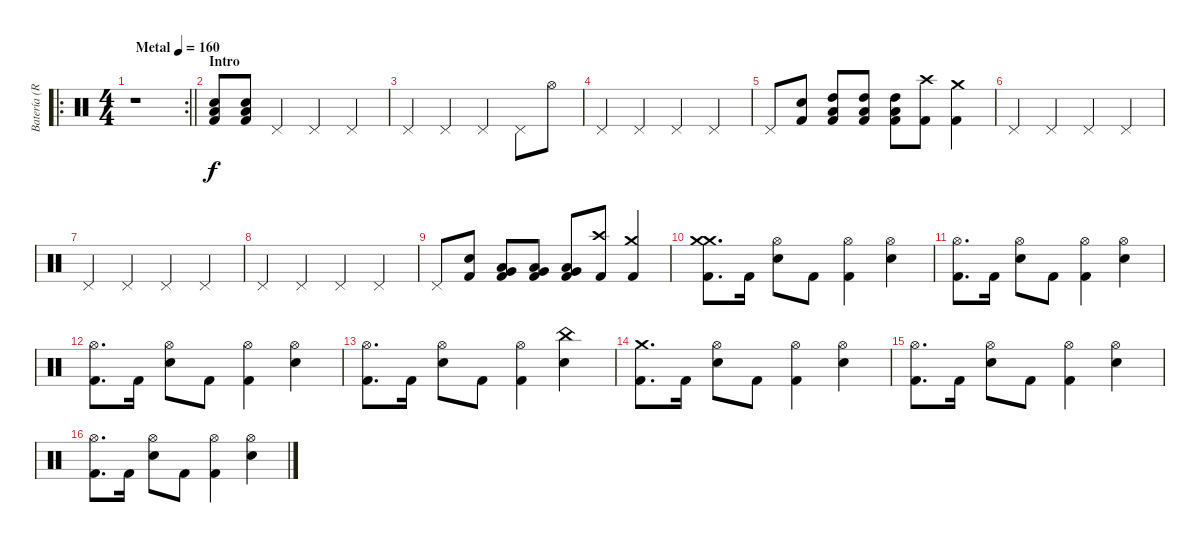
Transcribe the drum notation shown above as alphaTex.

\track ("Batería (Robert)" "Batería (R") {instrument percussion}
\staff {score}
\articulation defaults
\ro
\rc 2
\ts (4 4)
\tempo (160 "Metal")
\clef neutral
\barLineRight lightlight
\ks c
r.1{dy f} |
\section ("" "Intro")
("Kick (hit) 2" "Electric Snare (hit)" "Low Tom (hit)").8 ("Kick (hit) 2" "Electric Snare (hit)" "Low Tom (hit)").8 "Pedal Hi-Hat (hit)".4 "Pedal Hi-Hat (hit)".4 "Pedal Hi-Hat (hit)".4 |
"Pedal Hi-Hat (hit)".4 "Pedal Hi-Hat (hit)".4 "Pedal Hi-Hat (hit)".4 "Pedal Hi-Hat (hit)".8 "Hi-Hat (open)".8 |
"Pedal Hi-Hat (hit)".4 "Pedal Hi-Hat (hit)".4 "Pedal Hi-Hat (hit)".4 "Pedal Hi-Hat (hit)".4 |
"Pedal Hi-Hat (hit)".8 ("Electric Snare (hit)" "Kick (hit) 2").8 ("Kick (hit) 2" "High Tom (hit)" "Low Tom (hit)").8 ("Kick (hit) 2" "High Tom (hit)" "Low Tom (hit)").8 ("Kick (hit) 2" "High Tom (hit)" "Low Tom (hit)").8 ("Kick (hit) 2" "Crash high (hit)").8 ("Kick (hit) 2" "Crash medium (hit)").4 |
"Pedal Hi-Hat (hit)".4 "Pedal Hi-Hat (hit)".4 "Pedal Hi-Hat (hit)".4 "Pedal Hi-Hat (hit)".4 |
"Pedal Hi-Hat (hit)".4 "Pedal Hi-Hat (hit)".4 "Pedal Hi-Hat (hit)".4 "Pedal Hi-Hat (hit)".4 |
"Pedal Hi-Hat (hit)".4 "Pedal Hi-Hat (hit)".4 "Pedal Hi-Hat (hit)".4 "Pedal Hi-Hat (hit)".4 |
"Pedal Hi-Hat (hit)".8 ("Electric Snare (hit)" "Kick (hit) 2").8 ("Kick (hit) 2" "Very Low Tom (hit)" "Low Floor Tom (hit)").8 ("Kick (hit) 2" "Very Low Tom (hit)" "Low Floor Tom (hit)").8 ("Kick (hit) 2" "Very Low Tom (hit)" "Low Floor Tom (hit)").8{beam Up} ("Kick (hit) 2" "Crash high (hit)").8{beam Up} ("Kick (hit) 2" "Crash medium (hit)").4{beam Up} |
("Kick (hit) 2" "Crash medium (hit)" "Crash medium (hit)").8{d} "Kick (hit) 2".16 ("Hi-Hat (open)" "Electric Snare (hit)").8 "Kick (hit) 2".8 ("Kick (hit) 2" "Hi-Hat (open)").4 ("Hi-Hat (open)" "Electric Snare (hit)").4 |
("Kick (hit) 2" "Hi-Hat (open)").8{d} "Kick (hit) 2".16 ("Hi-Hat (open)" "Electric Snare (hit)").8 "Kick (hit) 2".8 ("Kick (hit) 2" "Hi-Hat (open)").4 ("Electric Snare (hit)" "Hi-Hat (open)").4 |
("Kick (hit) 2" "Hi-Hat (open)").8{d} "Kick (hit) 2".16 ("Hi-Hat (open)" "Electric Snare (hit)").8 "Kick (hit) 2".8 ("Kick (hit) 2" "Hi-Hat (open)").4 ("Electric Snare (hit)" "Hi-Hat (open)").4 |
("Kick (hit) 2" "Hi-Hat (open)").8{d} "Kick (hit) 2".16 ("Hi-Hat (open)" "Electric Snare (hit)").8 "Kick (hit) 2".8 ("Kick (hit) 2" "Hi-Hat (open)").4 ("China (hit)" "Electric Snare (hit)").4 |
("Kick (hit) 2" "Crash medium (hit)").8{d} "Kick (hit) 2".16 ("Hi-Hat (open)" "Electric Snare (hit)").8 "Kick (hit) 2".8 ("Kick (hit) 2" "Hi-Hat (open)").4 ("Hi-Hat (open)" "Electric Snare (hit)").4 |
("Kick (hit) 2" "Hi-Hat (open)").8{d} "Kick (hit) 2".16 ("Hi-Hat (open)" "Electric Snare (hit)").8 "Kick (hit) 2".8 ("Kick (hit) 2" "Hi-Hat (open)").4 ("Electric Snare (hit)" "Hi-Hat (open)").4 |
("Kick (hit) 2" "Hi-Hat (open)").8{d} "Kick (hit) 2".16 ("Hi-Hat (open)" "Electric Snare (hit)").8 "Kick (hit) 2".8 ("Kick (hit) 2" "Hi-Hat (open)").4 ("Electric Snare (hit)" "Hi-Hat (open)").4
